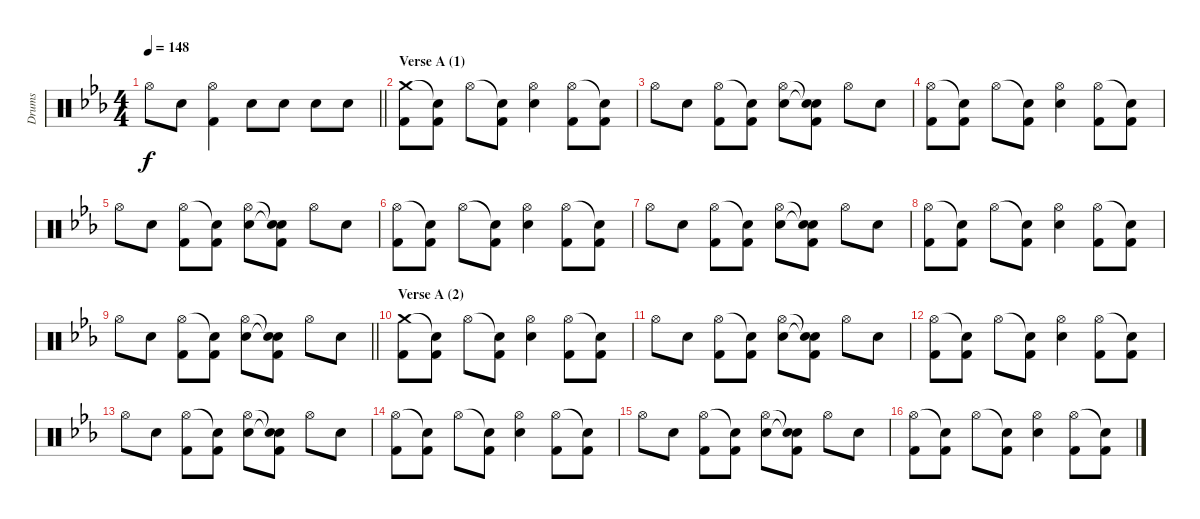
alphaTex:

\track ("Drums" "Drums") {instrument percussion}
\staff {score}
\articulation defaults
\ts (4 4)
\tempo 148
\clef neutral
\barLineRight lightlight
\ks eb "Hi-Hat (open)".8{dy f} "Electric Snare (hit)".8
("Hi-Hat (open)" "Kick (hit) 2").4 "Electric Snare (hit)".8 "Electric Snare (hit)".8 "Electric Snare (hit)".8 "Electric Snare (hit)".8 |
\section ("" "Verse A (1)")
("Crash medium (hit)" "Kick (hit) 2").8 ("Snare (hit)"{t} "Kick (hit) 2").8 "Hi-Hat (open)".8 ("Snare (hit)"{t} "Kick (hit) 2").8 ("Hi-Hat (open)" "Electric Snare (hit)").4 ("Hi-Hat (open)" "Kick (hit) 2").8 ("Snare (hit)"{t} "Kick (hit) 2").8 |
"Hi-Hat (open)".8 "Electric Snare (hit)".8 ("Hi-Hat (open)" "Kick (hit) 2").8 ("Snare (hit)"{t} "Kick (hit) 2").8 ("Hi-Hat (open)" "Electric Snare (hit)").8 ("Snare (hit)"{t} "Snare (hit)"{t} "Kick (hit) 2").8 "Hi-Hat (open)".8 "Electric Snare (hit)".8 |
("Hi-Hat (open)" "Kick (hit) 2").8 ("Snare (hit)"{t} "Kick (hit) 2").8 "Hi-Hat (open)".8 ("Snare (hit)"{t} "Kick (hit) 2").8 ("Hi-Hat (open)" "Electric Snare (hit)").4 ("Hi-Hat (open)" "Kick (hit) 2").8 ("Snare (hit)"{t} "Kick (hit) 2").8 |
"Hi-Hat (open)".8 "Electric Snare (hit)".8 ("Hi-Hat (open)" "Kick (hit) 2").8 ("Snare (hit)"{t} "Kick (hit) 2").8 ("Hi-Hat (open)" "Electric Snare (hit)").8 ("Snare (hit)"{t} "Snare (hit)"{t} "Kick (hit) 2").8 "Hi-Hat (open)".8 "Electric Snare (hit)".8 |
("Hi-Hat (open)" "Kick (hit) 2").8 ("Snare (hit)"{t} "Kick (hit) 2").8 "Hi-Hat (open)".8 ("Snare (hit)"{t} "Kick (hit) 2").8 ("Hi-Hat (open)" "Electric Snare (hit)").4 ("Hi-Hat (open)" "Kick (hit) 2").8 ("Snare (hit)"{t} "Kick (hit) 2").8 |
"Hi-Hat (open)".8 "Electric Snare (hit)".8 ("Hi-Hat (open)" "Kick (hit) 2").8 ("Snare (hit)"{t} "Kick (hit) 2").8 ("Hi-Hat (open)" "Electric Snare (hit)").8 ("Snare (hit)"{t} "Snare (hit)"{t} "Kick (hit) 2").8 "Hi-Hat (open)".8 "Electric Snare (hit)".8 |
("Hi-Hat (open)" "Kick (hit) 2").8 ("Snare (hit)"{t} "Kick (hit) 2").8 "Hi-Hat (open)".8 ("Snare (hit)"{t} "Kick (hit) 2").8 ("Hi-Hat (open)" "Electric Snare (hit)").4 ("Hi-Hat (open)" "Kick (hit) 2").8 ("Snare (hit)"{t} "Kick (hit) 2").8 |
\barLineRight lightlight "Hi-Hat (open)".8 "Electric Snare (hit)".8
("Hi-Hat (open)" "Kick (hit) 2").8 ("Snare (hit)"{t} "Kick (hit) 2").8 ("Hi-Hat (open)" "Electric Snare (hit)").8 ("Snare (hit)"{t} "Snare (hit)"{t} "Kick (hit) 2").8 "Hi-Hat (open)".8 "Electric Snare (hit)".8 |
\section ("" "Verse A (2)")
("Crash medium (hit)" "Kick (hit) 2").8 ("Snare (hit)"{t} "Kick (hit) 2").8 "Hi-Hat (open)".8 ("Snare (hit)"{t} "Kick (hit) 2").8 ("Hi-Hat (open)" "Electric Snare (hit)").4 ("Hi-Hat (open)" "Kick (hit) 2").8 ("Snare (hit)"{t} "Kick (hit) 2").8 |
"Hi-Hat (open)".8 "Electric Snare (hit)".8 ("Hi-Hat (open)" "Kick (hit) 2").8 ("Snare (hit)"{t} "Kick (hit) 2").8 ("Hi-Hat (open)" "Electric Snare (hit)").8 ("Snare (hit)"{t} "Snare (hit)"{t} "Kick (hit) 2").8 "Hi-Hat (open)".8 "Electric Snare (hit)".8 |
("Hi-Hat (open)" "Kick (hit) 2").8 ("Snare (hit)"{t} "Kick (hit) 2").8 "Hi-Hat (open)".8 ("Snare (hit)"{t} "Kick (hit) 2").8 ("Hi-Hat (open)" "Electric Snare (hit)").4 ("Hi-Hat (open)" "Kick (hit) 2").8 ("Snare (hit)"{t} "Kick (hit) 2").8 |
"Hi-Hat (open)".8 "Electric Snare (hit)".8 ("Hi-Hat (open)" "Kick (hit) 2").8 ("Snare (hit)"{t} "Kick (hit) 2").8 ("Hi-Hat (open)" "Electric Snare (hit)").8 ("Snare (hit)"{t} "Snare (hit)"{t} "Kick (hit) 2").8 "Hi-Hat (open)".8 "Electric Snare (hit)".8 |
("Hi-Hat (open)" "Kick (hit) 2").8 ("Snare (hit)"{t} "Kick (hit) 2").8 "Hi-Hat (open)".8 ("Snare (hit)"{t} "Kick (hit) 2").8 ("Hi-Hat (open)" "Electric Snare (hit)").4 ("Hi-Hat (open)" "Kick (hit) 2").8 ("Snare (hit)"{t} "Kick (hit) 2").8 |
"Hi-Hat (open)".8 "Electric Snare (hit)".8 ("Hi-Hat (open)" "Kick (hit) 2").8 ("Snare (hit)"{t} "Kick (hit) 2").8 ("Hi-Hat (open)" "Electric Snare (hit)").8 ("Snare (hit)"{t} "Snare (hit)"{t} "Kick (hit) 2").8 "Hi-Hat (open)".8 "Electric Snare (hit)".8 |
("Hi-Hat (open)" "Kick (hit) 2").8 ("Snare (hit)"{t} "Kick (hit) 2").8 "Hi-Hat (open)".8 ("Snare (hit)"{t} "Kick (hit) 2").8 ("Hi-Hat (open)" "Electric Snare (hit)").4 ("Hi-Hat (open)" "Kick (hit) 2").8 ("Snare (hit)"{t} "Kick (hit) 2").8
